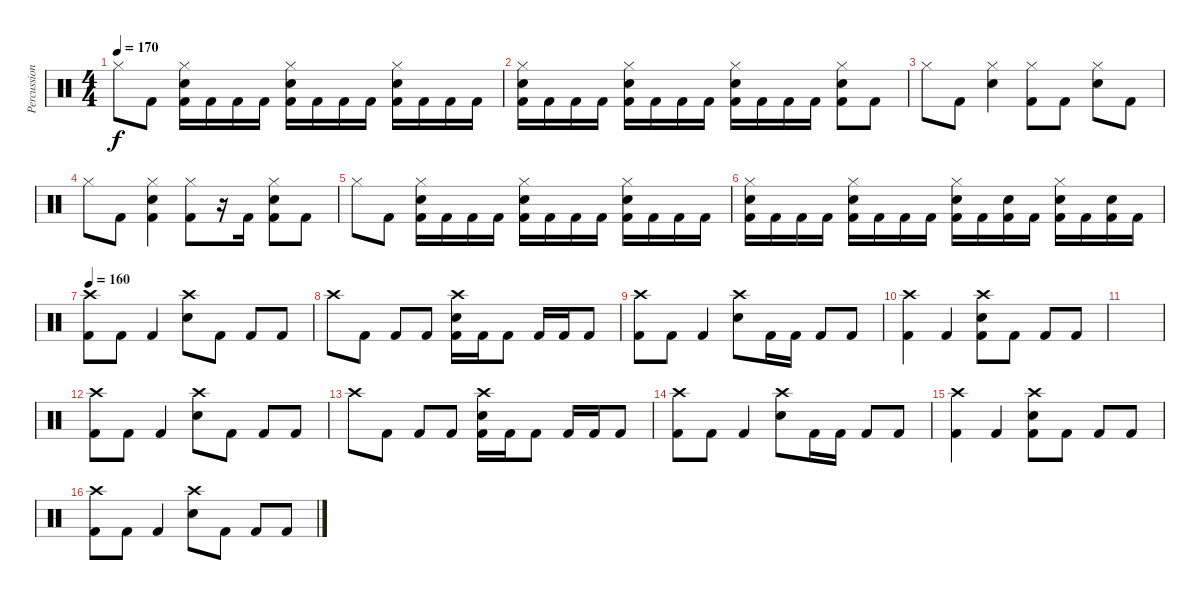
\track ("Percussion" "Percussion") {instrument percussion}
\staff {score}
\articulation defaults
\ts (4 4)
\tempo 170
\clef neutral
\ks c "Hi-Hat (closed)".8{dy f} "Kick (hit) 2".8
("Hi-Hat (closed)" "Electric Snare (hit)" "Kick (hit) 2").16 "Kick (hit) 2".16 "Kick (hit) 2".16 "Kick (hit) 2".16 ("Hi-Hat (closed)" "Electric Snare (hit)" "Kick (hit) 2").16 "Kick (hit) 2".16 "Kick (hit) 2".16 "Kick (hit) 2".16 ("Hi-Hat (closed)" "Electric Snare (hit)" "Kick (hit) 2").16 "Kick (hit) 2".16 "Kick (hit) 2".16 "Kick (hit) 2".16 |
("Hi-Hat (closed)" "Electric Snare (hit)" "Kick (hit) 2").16 "Kick (hit) 2".16 "Kick (hit) 2".16 "Kick (hit) 2".16 ("Hi-Hat (closed)" "Electric Snare (hit)" "Kick (hit) 2").16 "Kick (hit) 2".16 "Kick (hit) 2".16 "Kick (hit) 2".16 ("Hi-Hat (closed)" "Electric Snare (hit)" "Kick (hit) 2").16 "Kick (hit) 2".16 "Kick (hit) 2".16 "Kick (hit) 2".16 ("Hi-Hat (closed)" "Electric Snare (hit)" "Kick (hit) 2").8 "Kick (hit) 2".8 |
"Hi-Hat (closed)".8 "Kick (hit) 2".8 ("Hi-Hat (closed)" "Electric Snare (hit)").4 ("Hi-Hat (closed)" "Kick (hit) 2").8 "Kick (hit) 2".8 ("Hi-Hat (closed)" "Electric Snare (hit)").8 "Kick (hit) 2".8 |
"Hi-Hat (closed)".8 "Kick (hit) 2".8 ("Hi-Hat (closed)" "Electric Snare (hit)" "Kick (hit) 2").4 ("Hi-Hat (closed)" "Kick (hit) 2").8 r.16 "Kick (hit) 2".16 ("Hi-Hat (closed)" "Electric Snare (hit)" "Kick (hit) 2").8 "Kick (hit) 2".8 |
"Hi-Hat (closed)".8 "Kick (hit) 2".8 ("Hi-Hat (closed)" "Electric Snare (hit)" "Kick (hit) 2").16 "Kick (hit) 2".16 "Kick (hit) 2".16 "Kick (hit) 2".16 ("Hi-Hat (closed)" "Electric Snare (hit)" "Kick (hit) 2").16 "Kick (hit) 2".16 "Kick (hit) 2".16 "Kick (hit) 2".16 ("Hi-Hat (closed)" "Electric Snare (hit)" "Kick (hit) 2").16 "Kick (hit) 2".16 "Kick (hit) 2".16 "Kick (hit) 2".16 |
("Hi-Hat (closed)" "Electric Snare (hit)" "Kick (hit) 2").16 "Kick (hit) 2".16 "Kick (hit) 2".16 "Kick (hit) 2".16 ("Hi-Hat (closed)" "Electric Snare (hit)" "Kick (hit) 2").16 "Kick (hit) 2".16 "Kick (hit) 2".16 "Kick (hit) 2".16 ("Hi-Hat (closed)" "Electric Snare (hit)" "Kick (hit) 2").16 "Kick (hit) 2".16 ("Electric Snare (hit)" "Kick (hit) 2").16 "Kick (hit) 2".16 ("Hi-Hat (closed)" "Electric Snare (hit)" "Kick (hit) 2").16 "Kick (hit) 2".16 ("Electric Snare (hit)" "Kick (hit) 2").16 "Kick (hit) 2".16 |
\tempo 160
("Crash high (hit)" "Kick (hit) 2").8 "Kick (hit) 2".8 "Kick (hit) 2".4 ("Crash high (hit)" "Electric Snare (hit)").8 "Kick (hit) 2".8 "Kick (hit) 2".8 "Kick (hit) 2".8 |
"Crash high (hit)".8 "Kick (hit) 2".8 "Kick (hit) 2".8 "Kick (hit) 2".8 ("Crash high (hit)" "Electric Snare (hit)" "Kick (hit) 2").16 "Kick (hit) 2".16 "Kick (hit) 2".8 "Kick (hit) 2".16 "Kick (hit) 2".16 "Kick (hit) 2".8 |
("Crash high (hit)" "Kick (hit) 2").8 "Kick (hit) 2".8 "Kick (hit) 2".4 ("Crash high (hit)" "Electric Snare (hit)").8 "Kick (hit) 2".16 "Kick (hit) 2".16 "Kick (hit) 2".8 "Kick (hit) 2".8 |
("Crash high (hit)" "Kick (hit) 2").4 "Kick (hit) 2".4 ("Crash high (hit)" "Electric Snare (hit)" "Kick (hit) 2").8 "Kick (hit) 2".8 "Kick (hit) 2".8 "Kick (hit) 2".8 |
|
("Crash high (hit)" "Kick (hit) 2").8 "Kick (hit) 2".8 "Kick (hit) 2".4 ("Crash high (hit)" "Electric Snare (hit)").8 "Kick (hit) 2".8 "Kick (hit) 2".8 "Kick (hit) 2".8 |
"Crash high (hit)".8 "Kick (hit) 2".8 "Kick (hit) 2".8 "Kick (hit) 2".8 ("Crash high (hit)" "Electric Snare (hit)" "Kick (hit) 2").16 "Kick (hit) 2".16 "Kick (hit) 2".8 "Kick (hit) 2".16 "Kick (hit) 2".16 "Kick (hit) 2".8 |
("Crash high (hit)" "Kick (hit) 2").8 "Kick (hit) 2".8 "Kick (hit) 2".4 ("Crash high (hit)" "Electric Snare (hit)").8 "Kick (hit) 2".16 "Kick (hit) 2".16 "Kick (hit) 2".8 "Kick (hit) 2".8 |
("Crash high (hit)" "Kick (hit) 2").4 "Kick (hit) 2".4 ("Crash high (hit)" "Electric Snare (hit)" "Kick (hit) 2").8 "Kick (hit) 2".8 "Kick (hit) 2".8 "Kick (hit) 2".8 |
("Crash high (hit)" "Kick (hit) 2").8 "Kick (hit) 2".8 "Kick (hit) 2".4 ("Crash high (hit)" "Electric Snare (hit)").8 "Kick (hit) 2".8 "Kick (hit) 2".8 "Kick (hit) 2".8
